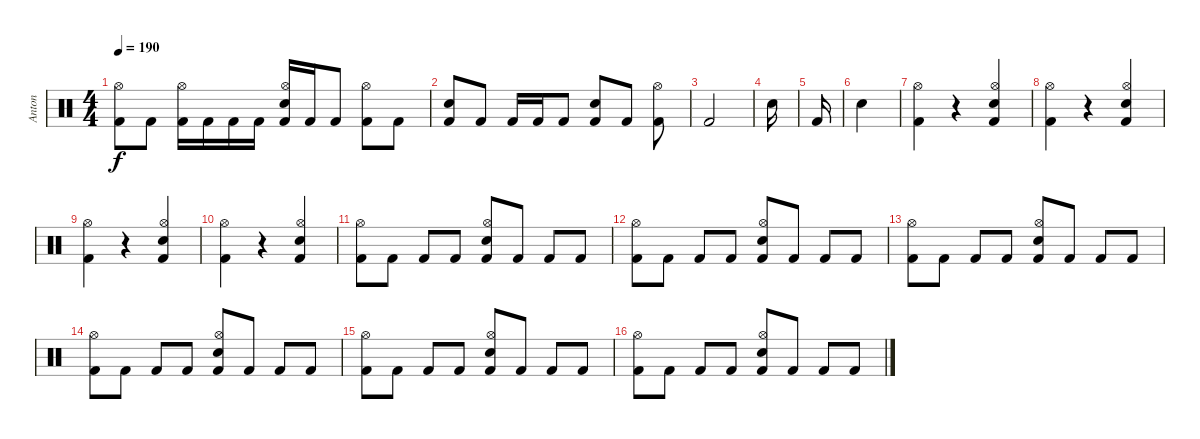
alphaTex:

\track ("Anton" "Anton") {instrument percussion}
\staff {score}
\articulation defaults
\ts (4 4)
\tempo 190
\clef neutral
\ks c
("Kick (hit) 2" "Hi-Hat (open)").8{dy f} "Kick (hit) 2".8 ("Hi-Hat (open)" "Kick (hit) 2").16 "Kick (hit) 2".16 "Kick (hit) 2".16 "Kick (hit) 2".16 ("Hi-Hat (open)" "Electric Snare (hit)" "Kick (hit) 2").16 "Kick (hit) 2".16 "Kick (hit) 2".8 ("Hi-Hat (open)" "Kick (hit) 2").8 "Kick (hit) 2".8 |
("Kick (hit) 2" "Snare (hit) 2").8 "Kick (hit) 2".8 "Kick (hit) 2".16 "Kick (hit) 2".16 "Kick (hit) 2".8 ("Kick (hit) 2" "Snare (hit) 2").8 "Kick (hit) 2".8 ("Kick (hit) 2" "Hi-Hat (open)").8 |
"Kick (hit) 2".2 |
"Snare (hit) 2".16 |
"Kick (hit) 2".16 |
"Snare (hit) 2".4 |
("Kick (hit) 2" "Hi-Hat (open)").4 r.4 ("Kick (hit) 2" "Snare (hit) 2" "Hi-Hat (open)").4 |
("Kick (hit) 2" "Hi-Hat (open)").4 r.4 ("Kick (hit) 2" "Snare (hit) 2" "Hi-Hat (open)").4 |
("Kick (hit) 2" "Hi-Hat (open)").4 r.4 ("Kick (hit) 2" "Snare (hit) 2" "Hi-Hat (open)").4 |
("Kick (hit) 2" "Hi-Hat (open)").4 r.4 ("Kick (hit) 2" "Snare (hit) 2" "Hi-Hat (open)").4 |
("Kick (hit) 2" "Hi-Hat (open)").8 "Kick (hit) 2".8 "Kick (hit) 2".8 "Kick (hit) 2".8 ("Kick (hit) 2" "Snare (hit) 2" "Hi-Hat (open)").8 "Kick (hit) 2".8 "Kick (hit) 2".8 "Kick (hit) 2".8 |
("Kick (hit) 2" "Hi-Hat (open)").8 "Kick (hit) 2".8 "Kick (hit) 2".8 "Kick (hit) 2".8 ("Kick (hit) 2" "Snare (hit) 2" "Hi-Hat (open)").8 "Kick (hit) 2".8 "Kick (hit) 2".8 "Kick (hit) 2".8 |
("Kick (hit) 2" "Hi-Hat (open)").8 "Kick (hit) 2".8 "Kick (hit) 2".8 "Kick (hit) 2".8 ("Kick (hit) 2" "Snare (hit) 2" "Hi-Hat (open)").8 "Kick (hit) 2".8 "Kick (hit) 2".8 "Kick (hit) 2".8 |
("Kick (hit) 2" "Hi-Hat (open)").8 "Kick (hit) 2".8 "Kick (hit) 2".8 "Kick (hit) 2".8 ("Kick (hit) 2" "Snare (hit) 2" "Hi-Hat (open)").8 "Kick (hit) 2".8 "Kick (hit) 2".8 "Kick (hit) 2".8 |
("Kick (hit) 2" "Hi-Hat (open)").8 "Kick (hit) 2".8 "Kick (hit) 2".8 "Kick (hit) 2".8 ("Kick (hit) 2" "Snare (hit) 2" "Hi-Hat (open)").8 "Kick (hit) 2".8 "Kick (hit) 2".8 "Kick (hit) 2".8 |
("Kick (hit) 2" "Hi-Hat (open)").8 "Kick (hit) 2".8 "Kick (hit) 2".8 "Kick (hit) 2".8 ("Kick (hit) 2" "Snare (hit) 2" "Hi-Hat (open)").8 "Kick (hit) 2".8 "Kick (hit) 2".8 "Kick (hit) 2".8
